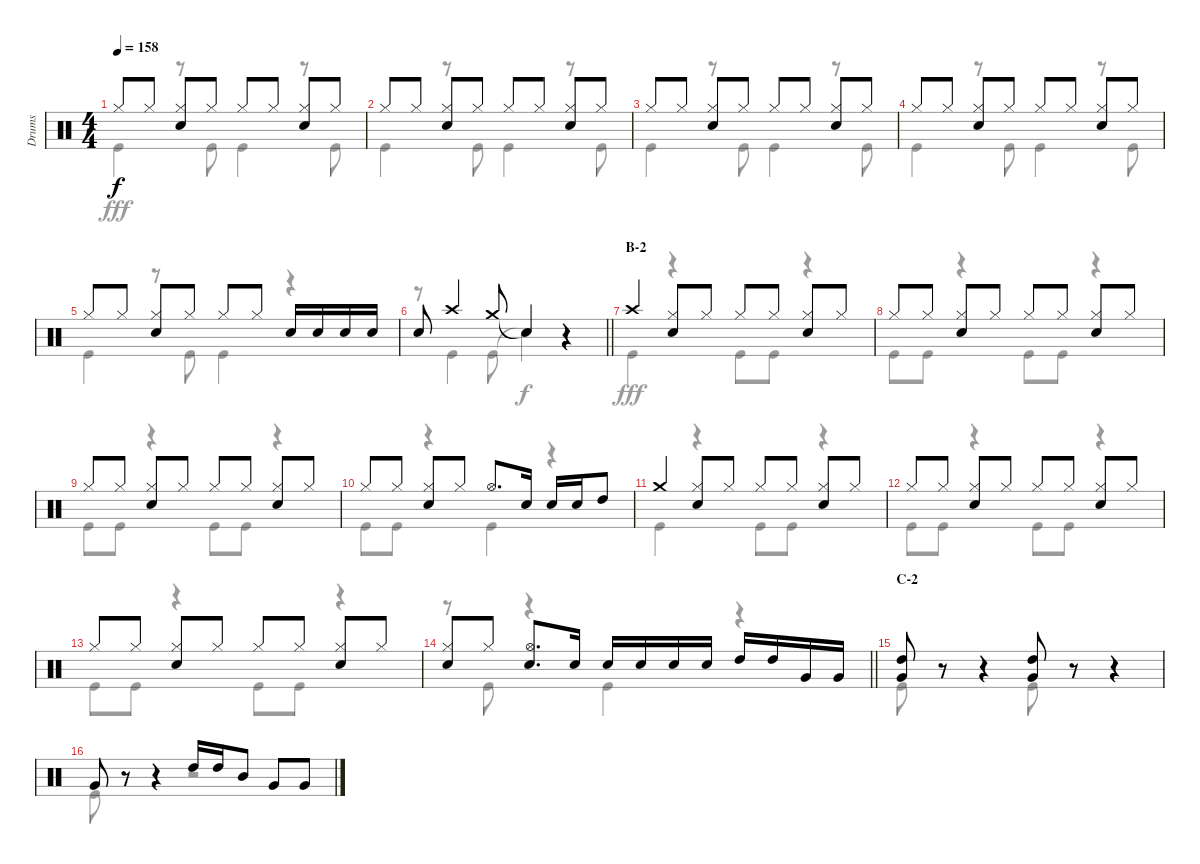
\track ("Drums" "Drums") {instrument percussion}
\staff {score}
\articulation defaults
\voice
\ts (4 4)
\tempo 158
\clef neutral
\ks c "Hi-Hat (closed)".8{dy f} "Hi-Hat (closed)".8
("Hi-Hat (closed)" "Snare (hit) 2").8 "Hi-Hat (closed)".8 "Hi-Hat (closed)".8 "Hi-Hat (closed)".8 ("Hi-Hat (closed)" "Snare (hit) 2").8 "Hi-Hat (closed)".8 |
"Hi-Hat (closed)".8 "Hi-Hat (closed)".8 ("Hi-Hat (closed)" "Snare (hit) 2").8 "Hi-Hat (closed)".8 "Hi-Hat (closed)".8 "Hi-Hat (closed)".8 ("Hi-Hat (closed)" "Snare (hit) 2").8 "Hi-Hat (closed)".8 |
"Hi-Hat (closed)".8 "Hi-Hat (closed)".8 ("Hi-Hat (closed)" "Snare (hit) 2").8 "Hi-Hat (closed)".8 "Hi-Hat (closed)".8 "Hi-Hat (closed)".8 ("Hi-Hat (closed)" "Snare (hit) 2").8 "Hi-Hat (closed)".8 |
"Hi-Hat (closed)".8 "Hi-Hat (closed)".8 ("Hi-Hat (closed)" "Snare (hit) 2").8 "Hi-Hat (closed)".8 "Hi-Hat (closed)".8 "Hi-Hat (closed)".8 ("Hi-Hat (closed)" "Snare (hit) 2").8 "Hi-Hat (closed)".8 |
"Hi-Hat (closed)".8 "Hi-Hat (closed)".8 ("Hi-Hat (closed)" "Snare (hit) 2").8 "Hi-Hat (closed)".8 "Hi-Hat (closed)".8 "Hi-Hat (closed)".8 "Snare (hit) 2".16 "Snare (hit) 2".16 "Snare (hit) 2".16 "Snare (hit) 2".16 |
\barLineRight lightlight "Snare (hit) 2".8 "Crash high (hit)".4 "Crash medium (hit)".8 "Snare (hit)"{t}.4
r.4 |
\section ("" "B-2")
"Crash high (hit)".4 ("Hi-Hat (closed)" "Snare (hit) 2").8 "Hi-Hat (closed)".8 "Hi-Hat (closed)".8 "Hi-Hat (closed)".8 ("Hi-Hat (closed)" "Snare (hit) 2").8 "Hi-Hat (closed)".8 |
"Hi-Hat (closed)".8 "Hi-Hat (closed)".8 ("Hi-Hat (closed)" "Snare (hit) 2").8 "Hi-Hat (closed)".8 "Hi-Hat (closed)".8 "Hi-Hat (closed)".8 ("Hi-Hat (closed)" "Snare (hit) 2").8 "Hi-Hat (closed)".8 |
"Hi-Hat (closed)".8 "Hi-Hat (closed)".8 ("Hi-Hat (closed)" "Snare (hit) 2").8 "Hi-Hat (closed)".8 "Hi-Hat (closed)".8 "Hi-Hat (closed)".8 ("Hi-Hat (closed)" "Snare (hit) 2").8 "Hi-Hat (closed)".8 |
"Hi-Hat (closed)".8 "Hi-Hat (closed)".8 ("Hi-Hat (closed)" "Snare (hit) 2").8 "Hi-Hat (closed)".8 "Hi-Hat (open)".8{d} "Snare (hit) 2".16 "Snare (hit) 2".16 "Snare (hit) 2".16 "High Tom (hit)".8 |
"Crash medium (hit)".4 ("Hi-Hat (closed)" "Snare (hit) 2").8 "Hi-Hat (closed)".8 "Hi-Hat (closed)".8 "Hi-Hat (closed)".8 ("Hi-Hat (closed)" "Snare (hit) 2").8 "Hi-Hat (closed)".8 |
"Hi-Hat (closed)".8 "Hi-Hat (closed)".8 ("Hi-Hat (closed)" "Snare (hit) 2").8 "Hi-Hat (closed)".8 "Hi-Hat (closed)".8 "Hi-Hat (closed)".8 ("Hi-Hat (closed)" "Snare (hit) 2").8 "Hi-Hat (closed)".8 |
"Hi-Hat (closed)".8 "Hi-Hat (closed)".8 ("Hi-Hat (closed)" "Snare (hit) 2").8 "Hi-Hat (closed)".8 "Hi-Hat (closed)".8 "Hi-Hat (closed)".8 ("Hi-Hat (closed)" "Snare (hit) 2").8 "Hi-Hat (closed)".8 |
\barLineRight lightlight
("Hi-Hat (closed)" "Snare (hit) 2").8 "Hi-Hat (closed)".8 ("Hi-Hat (open)" "Snare (hit) 2").8{d} "Snare (hit) 2".16 "Snare (hit) 2".16 "Snare (hit) 2".16 "Snare (hit) 2".16 "Snare (hit) 2".16 "High Tom (hit)".16 "High Tom (hit)".16 "Very Low Tom (hit)".16 "Very Low Tom (hit)".16 |
\section ("" "C-2")
("High Tom (hit)" "Very Low Tom (hit)").8 r.8 r.4 ("High Tom (hit)" "Very Low Tom (hit)").8 r.8 r.4 |
"Very Low Tom (hit)".8 r.8 r.4 "High Tom (hit)".16 "High Tom (hit)".16 "Mid Tom (hit)".8 "Very Low Tom (hit)".8 "Very Low Tom (hit)".8
\voice
\clef neutral
\ottava regular
\simile none
\ks c "Kick (hit)".4{dy fff}
r.8 "Kick (hit)".8 "Kick (hit)".4 r.8 "Kick (hit)".8 |
"Kick (hit)".4 r.8 "Kick (hit)".8 "Kick (hit)".4 r.8 "Kick (hit)".8 |
"Kick (hit)".4 r.8 "Kick (hit)".8 "Kick (hit)".4 r.8 "Kick (hit)".8 |
"Kick (hit)".4 r.8 "Kick (hit)".8 "Kick (hit)".4 r.8 "Kick (hit)".8 |
"Kick (hit)".4 r.8 "Kick (hit)".8 "Kick (hit)".4 r.4 |
\barLineRight lightlight
r.8 "Kick (hit)".4 "Kick (hit)".8 "Snare (hit)"{t}.4{dy f} r.4 |
"Kick (hit)".4{dy fff} r.4 "Kick (hit)".8 "Kick (hit)".8 r.4 |
"Kick (hit)".8 "Kick (hit)".8 r.4 "Kick (hit)".8 "Kick (hit)".8 r.4 |
"Kick (hit)".8 "Kick (hit)".8 r.4 "Kick (hit)".8 "Kick (hit)".8 r.4 |
"Kick (hit)".8 "Kick (hit)".8 r.4 "Kick (hit)".4 r.4 |
"Kick (hit)".4 r.4 "Kick (hit)".8 "Kick (hit)".8 r.4 |
"Kick (hit)".8 "Kick (hit)".8 r.4 "Kick (hit)".8 "Kick (hit)".8 r.4 |
"Kick (hit)".8 "Kick (hit)".8 r.4 "Kick (hit)".8 "Kick (hit)".8 r.4 |
\barLineRight lightlight
r.8 "Kick (hit)".8 r.4 "Kick (hit)".4 r.4 |
"Kick (hit)".8 r.8 r.4 "Kick (hit)".8 r.8 r.4 |
"Kick (hit)".8 r.8 r.4 r.2
